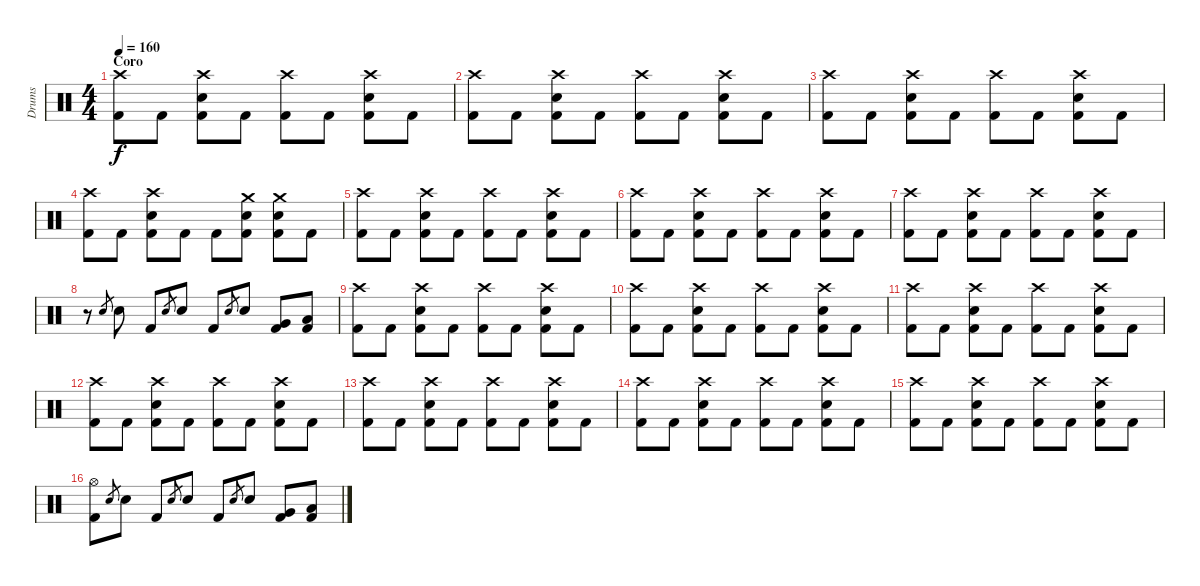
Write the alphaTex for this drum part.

\track ("Drums" "Drums") {instrument percussion}
\staff {score}
\articulation defaults
\ts (4 4)
\section ("" "Coro")
\tempo 160
\clef neutral
\ks c
("Crash high (hit)" "Kick (hit) 2").8{dy f} "Kick (hit) 2".8 ("Crash high (hit)" "Electric Snare (hit)" "Kick (hit) 2").8 "Kick (hit) 2".8 ("Crash high (hit)" "Kick (hit) 2").8 "Kick (hit) 2".8 ("Crash high (hit)" "Electric Snare (hit)" "Kick (hit) 2").8 "Kick (hit) 2".8 |
("Crash high (hit)" "Kick (hit) 2").8 "Kick (hit) 2".8 ("Crash high (hit)" "Electric Snare (hit)" "Kick (hit) 2").8 "Kick (hit) 2".8 ("Crash high (hit)" "Kick (hit) 2").8 "Kick (hit) 2".8 ("Crash high (hit)" "Electric Snare (hit)" "Kick (hit) 2").8 "Kick (hit) 2".8 |
("Crash high (hit)" "Kick (hit) 2").8 "Kick (hit) 2".8 ("Crash high (hit)" "Electric Snare (hit)" "Kick (hit) 2").8 "Kick (hit) 2".8 ("Crash high (hit)" "Kick (hit) 2").8 "Kick (hit) 2".8 ("Crash high (hit)" "Electric Snare (hit)" "Kick (hit) 2").8 "Kick (hit) 2".8 |
("Crash high (hit)" "Kick (hit) 2").8 "Kick (hit) 2".8 ("Crash high (hit)" "Electric Snare (hit)" "Kick (hit) 2").8 "Kick (hit) 2".8 "Kick (hit) 2".8 ("Crash medium (hit)" "Electric Snare (hit)" "Kick (hit) 2").8 ("Crash medium (hit)" "Electric Snare (hit)" "Kick (hit) 2").8 "Kick (hit) 2".8 |
("Crash high (hit)" "Kick (hit) 2").8 "Kick (hit) 2".8 ("Crash high (hit)" "Electric Snare (hit)" "Kick (hit) 2").8 "Kick (hit) 2".8 ("Crash high (hit)" "Kick (hit) 2").8 "Kick (hit) 2".8 ("Crash high (hit)" "Electric Snare (hit)" "Kick (hit) 2").8 "Kick (hit) 2".8 |
("Crash high (hit)" "Kick (hit) 2").8 "Kick (hit) 2".8 ("Crash high (hit)" "Electric Snare (hit)" "Kick (hit) 2").8 "Kick (hit) 2".8 ("Crash high (hit)" "Kick (hit) 2").8 "Kick (hit) 2".8 ("Crash high (hit)" "Electric Snare (hit)" "Kick (hit) 2").8 "Kick (hit) 2".8 |
("Crash high (hit)" "Kick (hit) 2").8 "Kick (hit) 2".8 ("Crash high (hit)" "Electric Snare (hit)" "Kick (hit) 2").8 "Kick (hit) 2".8 ("Crash high (hit)" "Kick (hit) 2").8 "Kick (hit) 2".8 ("Crash high (hit)" "Electric Snare (hit)" "Kick (hit) 2").8 "Kick (hit) 2".8 |
r.8 "Electric Snare (hit)".8{gr} "Electric Snare (hit)".8 "Kick (hit) 2".8 "Electric Snare (hit)".8{gr} "Electric Snare (hit)".8 "Kick (hit) 2".8 "Electric Snare (hit)".8{gr} "Electric Snare (hit)".8 ("Very Low Tom (hit)" "Kick (hit) 2").8 ("Low Floor Tom (hit)" "Kick (hit) 2").8 |
("Crash high (hit)" "Kick (hit) 2").8 "Kick (hit) 2".8 ("Crash high (hit)" "Electric Snare (hit)" "Kick (hit) 2").8 "Kick (hit) 2".8 ("Crash high (hit)" "Kick (hit) 2").8 "Kick (hit) 2".8 ("Crash high (hit)" "Electric Snare (hit)" "Kick (hit) 2").8 "Kick (hit) 2".8 |
("Crash high (hit)" "Kick (hit) 2").8 "Kick (hit) 2".8 ("Crash high (hit)" "Electric Snare (hit)" "Kick (hit) 2").8 "Kick (hit) 2".8 ("Crash high (hit)" "Kick (hit) 2").8 "Kick (hit) 2".8 ("Crash high (hit)" "Electric Snare (hit)" "Kick (hit) 2").8 "Kick (hit) 2".8 |
("Crash high (hit)" "Kick (hit) 2").8 "Kick (hit) 2".8 ("Crash high (hit)" "Electric Snare (hit)" "Kick (hit) 2").8 "Kick (hit) 2".8 ("Crash high (hit)" "Kick (hit) 2").8 "Kick (hit) 2".8 ("Crash high (hit)" "Electric Snare (hit)" "Kick (hit) 2").8 "Kick (hit) 2".8 |
("Crash high (hit)" "Kick (hit) 2").8 "Kick (hit) 2".8 ("Crash high (hit)" "Electric Snare (hit)" "Kick (hit) 2").8 "Kick (hit) 2".8 ("Crash high (hit)" "Kick (hit) 2").8 "Kick (hit) 2".8 ("Crash high (hit)" "Electric Snare (hit)" "Kick (hit) 2").8 "Kick (hit) 2".8 |
("Crash high (hit)" "Kick (hit) 2").8 "Kick (hit) 2".8 ("Crash high (hit)" "Electric Snare (hit)" "Kick (hit) 2").8 "Kick (hit) 2".8 ("Crash high (hit)" "Kick (hit) 2").8 "Kick (hit) 2".8 ("Crash high (hit)" "Electric Snare (hit)" "Kick (hit) 2").8 "Kick (hit) 2".8 |
("Crash high (hit)" "Kick (hit) 2").8 "Kick (hit) 2".8 ("Crash high (hit)" "Electric Snare (hit)" "Kick (hit) 2").8 "Kick (hit) 2".8 ("Crash high (hit)" "Kick (hit) 2").8 "Kick (hit) 2".8 ("Crash high (hit)" "Electric Snare (hit)" "Kick (hit) 2").8 "Kick (hit) 2".8 |
("Crash high (hit)" "Kick (hit) 2").8 "Kick (hit) 2".8 ("Crash high (hit)" "Electric Snare (hit)" "Kick (hit) 2").8 "Kick (hit) 2".8 ("Crash high (hit)" "Kick (hit) 2").8 "Kick (hit) 2".8 ("Crash high (hit)" "Electric Snare (hit)" "Kick (hit) 2").8 "Kick (hit) 2".8 |
("Hi-Hat (open)" "Kick (hit) 2").8 "Electric Snare (hit)".8{gr} "Electric Snare (hit)".8 "Kick (hit) 2".8 "Electric Snare (hit)".8{gr} "Electric Snare (hit)".8 "Kick (hit) 2".8 "Electric Snare (hit)".8{gr} "Electric Snare (hit)".8 ("Very Low Tom (hit)" "Kick (hit) 2").8 ("Low Floor Tom (hit)" "Kick (hit) 2").8
